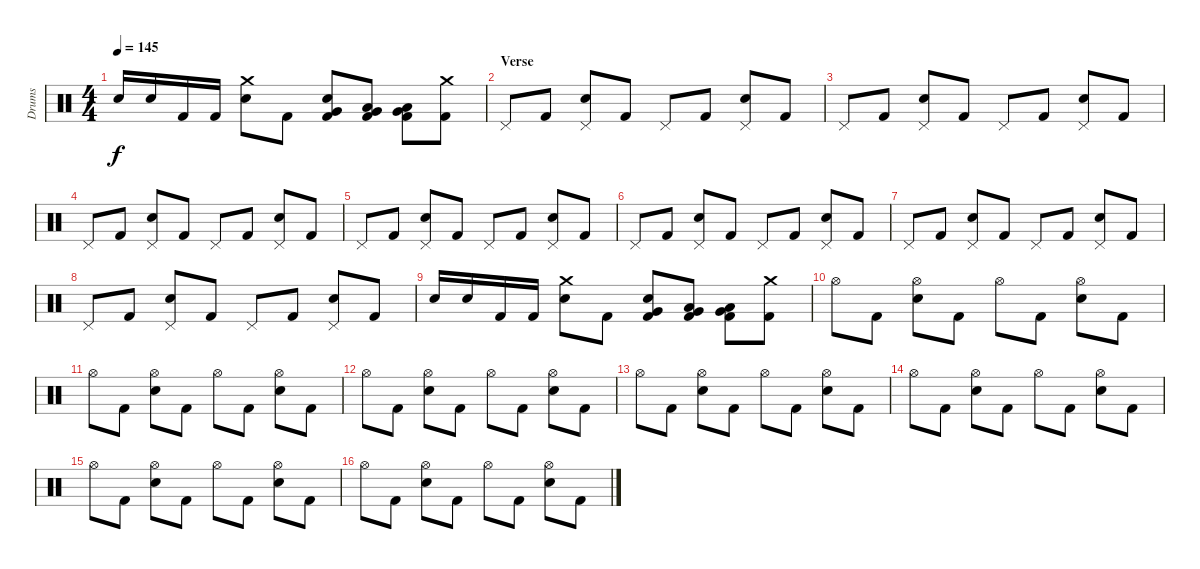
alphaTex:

\track ("Drums" "Drums") {instrument percussion}
\staff {score}
\articulation defaults
\ts (4 4)
\tempo 145
\clef neutral
\ks c "Electric Snare (hit)".16{dy f} "Electric Snare (hit)".16 "Kick (hit) 2".16 "Kick (hit) 2".16
("Crash medium (hit)" "Electric Snare (hit)").8 "Kick (hit) 2".8 ("Kick (hit) 2" "Electric Snare (hit)" "Very Low Tom (hit)").8 ("Kick (hit) 2" "Low Floor Tom (hit)" "Very Low Tom (hit)").8 ("Kick (hit) 2" "Low Floor Tom (hit)" "Very Low Tom (hit)").8 ("Crash medium (hit)" "Kick (hit) 2").8 |
\section ("" "Verse")
"Pedal Hi-Hat (hit)".8 "Kick (hit) 2".8 ("Pedal Hi-Hat (hit)" "Electric Snare (hit)").8 "Kick (hit) 2".8 "Pedal Hi-Hat (hit)".8 "Kick (hit) 2".8 ("Pedal Hi-Hat (hit)" "Electric Snare (hit)").8 "Kick (hit) 2".8 |
"Pedal Hi-Hat (hit)".8 "Kick (hit) 2".8 ("Pedal Hi-Hat (hit)" "Electric Snare (hit)").8 "Kick (hit) 2".8 "Pedal Hi-Hat (hit)".8 "Kick (hit) 2".8 ("Pedal Hi-Hat (hit)" "Electric Snare (hit)").8 "Kick (hit) 2".8 |
"Pedal Hi-Hat (hit)".8 "Kick (hit) 2".8 ("Pedal Hi-Hat (hit)" "Electric Snare (hit)").8 "Kick (hit) 2".8 "Pedal Hi-Hat (hit)".8 "Kick (hit) 2".8 ("Pedal Hi-Hat (hit)" "Electric Snare (hit)").8 "Kick (hit) 2".8 |
"Pedal Hi-Hat (hit)".8 "Kick (hit) 2".8 ("Pedal Hi-Hat (hit)" "Electric Snare (hit)").8 "Kick (hit) 2".8 "Pedal Hi-Hat (hit)".8 "Kick (hit) 2".8 ("Pedal Hi-Hat (hit)" "Electric Snare (hit)").8 "Kick (hit) 2".8 |
"Pedal Hi-Hat (hit)".8 "Kick (hit) 2".8 ("Pedal Hi-Hat (hit)" "Electric Snare (hit)").8 "Kick (hit) 2".8 "Pedal Hi-Hat (hit)".8 "Kick (hit) 2".8 ("Pedal Hi-Hat (hit)" "Electric Snare (hit)").8 "Kick (hit) 2".8 |
"Pedal Hi-Hat (hit)".8 "Kick (hit) 2".8 ("Pedal Hi-Hat (hit)" "Electric Snare (hit)").8 "Kick (hit) 2".8 "Pedal Hi-Hat (hit)".8 "Kick (hit) 2".8 ("Pedal Hi-Hat (hit)" "Electric Snare (hit)").8 "Kick (hit) 2".8 |
"Pedal Hi-Hat (hit)".8 "Kick (hit) 2".8 ("Pedal Hi-Hat (hit)" "Electric Snare (hit)").8 "Kick (hit) 2".8 "Pedal Hi-Hat (hit)".8 "Kick (hit) 2".8 ("Pedal Hi-Hat (hit)" "Electric Snare (hit)").8 "Kick (hit) 2".8 |
"Electric Snare (hit)".16 "Electric Snare (hit)".16 "Kick (hit) 2".16 "Kick (hit) 2".16 ("Crash medium (hit)" "Electric Snare (hit)").8 "Kick (hit) 2".8 ("Kick (hit) 2" "Electric Snare (hit)" "Very Low Tom (hit)").8 ("Kick (hit) 2" "Low Floor Tom (hit)" "Very Low Tom (hit)").8 ("Kick (hit) 2" "Low Floor Tom (hit)" "Very Low Tom (hit)").8 ("Crash medium (hit)" "Kick (hit) 2").8 |
"Hi-Hat (open)".8 "Kick (hit) 2".8 ("Hi-Hat (open)" "Electric Snare (hit)").8 "Kick (hit) 2".8 "Hi-Hat (open)".8 "Kick (hit) 2".8 ("Hi-Hat (open)" "Electric Snare (hit)").8 "Kick (hit) 2".8 |
"Hi-Hat (open)".8 "Kick (hit) 2".8 ("Hi-Hat (open)" "Electric Snare (hit)").8 "Kick (hit) 2".8 "Hi-Hat (open)".8 "Kick (hit) 2".8 ("Hi-Hat (open)" "Electric Snare (hit)").8 "Kick (hit) 2".8 |
"Hi-Hat (open)".8 "Kick (hit) 2".8 ("Hi-Hat (open)" "Electric Snare (hit)").8 "Kick (hit) 2".8 "Hi-Hat (open)".8 "Kick (hit) 2".8 ("Hi-Hat (open)" "Electric Snare (hit)").8 "Kick (hit) 2".8 |
"Hi-Hat (open)".8 "Kick (hit) 2".8 ("Hi-Hat (open)" "Electric Snare (hit)").8 "Kick (hit) 2".8 "Hi-Hat (open)".8 "Kick (hit) 2".8 ("Hi-Hat (open)" "Electric Snare (hit)").8 "Kick (hit) 2".8 |
"Hi-Hat (open)".8 "Kick (hit) 2".8 ("Hi-Hat (open)" "Electric Snare (hit)").8 "Kick (hit) 2".8 "Hi-Hat (open)".8 "Kick (hit) 2".8 ("Hi-Hat (open)" "Electric Snare (hit)").8 "Kick (hit) 2".8 |
"Hi-Hat (open)".8 "Kick (hit) 2".8 ("Hi-Hat (open)" "Electric Snare (hit)").8 "Kick (hit) 2".8 "Hi-Hat (open)".8 "Kick (hit) 2".8 ("Hi-Hat (open)" "Electric Snare (hit)").8 "Kick (hit) 2".8 |
"Hi-Hat (open)".8 "Kick (hit) 2".8 ("Hi-Hat (open)" "Electric Snare (hit)").8 "Kick (hit) 2".8 "Hi-Hat (open)".8 "Kick (hit) 2".8 ("Hi-Hat (open)" "Electric Snare (hit)").8 "Kick (hit) 2".8
